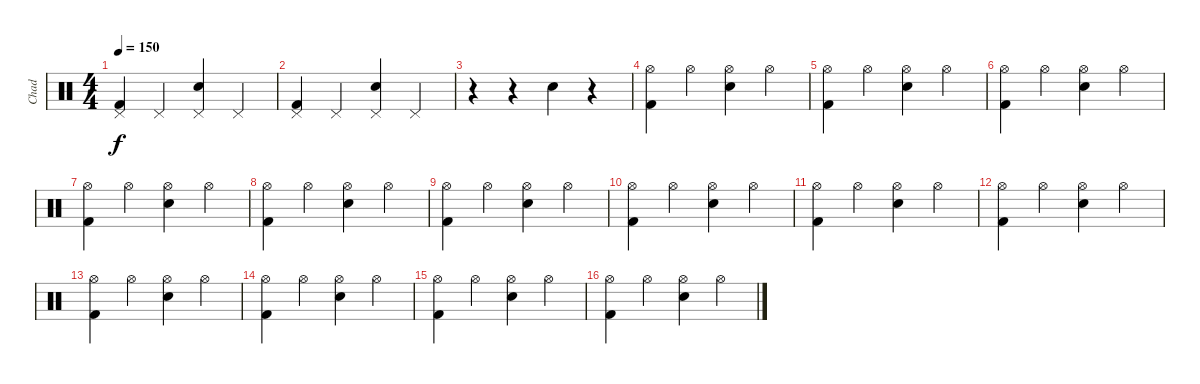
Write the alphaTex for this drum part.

\track ("Chad" "Chad") {instrument percussion}
\staff {score}
\articulation defaults
\ts (4 4)
\tempo 150
\clef neutral
\ks c
("Pedal Hi-Hat (hit)" "Kick (hit) 2").4{dy f} "Pedal Hi-Hat (hit)".4 ("Pedal Hi-Hat (hit)" "Snare (hit) 2").4 "Pedal Hi-Hat (hit)".4 |
("Pedal Hi-Hat (hit)" "Kick (hit) 2").4 "Pedal Hi-Hat (hit)".4 ("Pedal Hi-Hat (hit)" "Snare (hit) 2").4 "Pedal Hi-Hat (hit)".4 |
r.4 r.4 "Snare (hit) 2".4 r.4 |
("Hi-Hat (open)" "Kick (hit) 2").4 "Hi-Hat (open)".4 ("Hi-Hat (open)" "Snare (hit) 2").4 "Hi-Hat (open)".4 |
("Hi-Hat (open)" "Kick (hit) 2").4 "Hi-Hat (open)".4 ("Hi-Hat (open)" "Snare (hit) 2").4 "Hi-Hat (open)".4 |
("Hi-Hat (open)" "Kick (hit) 2").4 "Hi-Hat (open)".4 ("Hi-Hat (open)" "Snare (hit) 2").4 "Hi-Hat (open)".4 |
("Hi-Hat (open)" "Kick (hit) 2").4 "Hi-Hat (open)".4 ("Hi-Hat (open)" "Snare (hit) 2").4 "Hi-Hat (open)".4 |
("Hi-Hat (open)" "Kick (hit) 2").4 "Hi-Hat (open)".4 ("Hi-Hat (open)" "Snare (hit) 2").4 "Hi-Hat (open)".4 |
("Hi-Hat (open)" "Kick (hit) 2").4 "Hi-Hat (open)".4 ("Hi-Hat (open)" "Snare (hit) 2").4 "Hi-Hat (open)".4 |
("Hi-Hat (open)" "Kick (hit) 2").4 "Hi-Hat (open)".4 ("Hi-Hat (open)" "Snare (hit) 2").4 "Hi-Hat (open)".4 |
("Hi-Hat (open)" "Kick (hit) 2").4 "Hi-Hat (open)".4 ("Hi-Hat (open)" "Snare (hit) 2").4 "Hi-Hat (open)".4 |
("Hi-Hat (open)" "Kick (hit) 2").4 "Hi-Hat (open)".4 ("Hi-Hat (open)" "Snare (hit) 2").4 "Hi-Hat (open)".4 |
("Hi-Hat (open)" "Kick (hit) 2").4 "Hi-Hat (open)".4 ("Hi-Hat (open)" "Snare (hit) 2").4 "Hi-Hat (open)".4 |
("Hi-Hat (open)" "Kick (hit) 2").4 "Hi-Hat (open)".4 ("Hi-Hat (open)" "Snare (hit) 2").4 "Hi-Hat (open)".4 |
("Hi-Hat (open)" "Kick (hit) 2").4 "Hi-Hat (open)".4 ("Hi-Hat (open)" "Snare (hit) 2").4 "Hi-Hat (open)".4 |
("Hi-Hat (open)" "Kick (hit) 2").4 "Hi-Hat (open)".4 ("Hi-Hat (open)" "Snare (hit) 2").4 "Hi-Hat (open)".4
